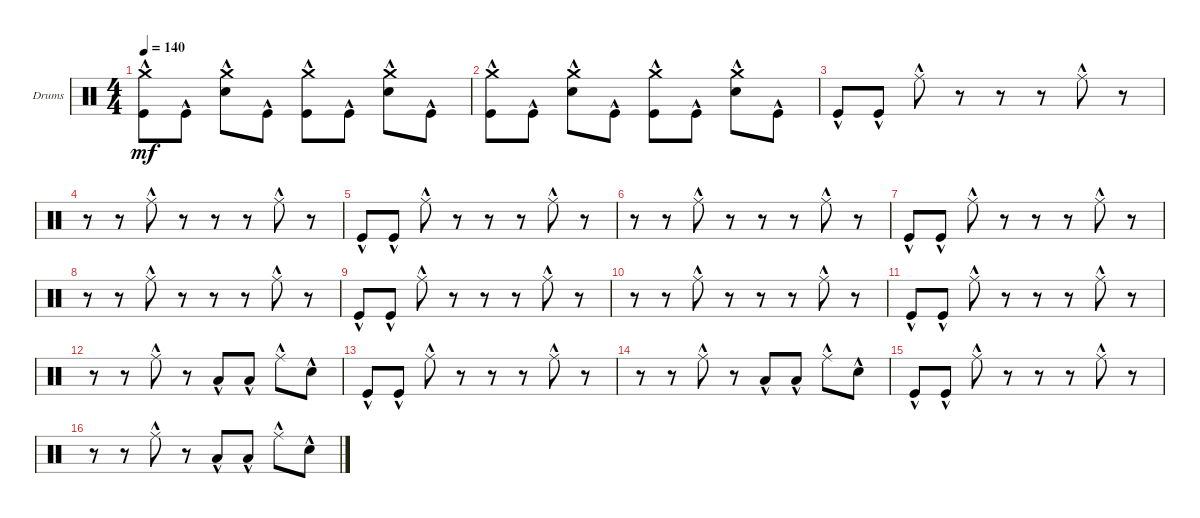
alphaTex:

\defaultSystemsLayout 4
\bracketExtendMode groupsimilarinstruments
\firstSystemTrackNameOrientation horizontal
\otherSystemsTrackNameOrientation horizontal
\track ("Drumkit" "Drums") {instrument percussion}
\staff {score}
\articulation defaults
\ts (4 4)
\tempo 140
\clef neutral
\ks c
("Kick (hit)"{hac} "Crash medium (hit)"{hac}).8{dy mf} "Kick (hit)"{hac}.8 ("Snare (hit) 2"{hac} "Crash medium (hit)"{hac}).8 "Kick (hit)"{hac}.8 ("Kick (hit)"{hac} "Crash medium (hit)"{hac}).8 "Kick (hit)"{hac}.8 ("Snare (hit) 2"{hac} "Crash medium (hit)"{hac}).8 "Kick (hit)"{hac}.8 |
("Kick (hit)"{hac} "Crash medium (hit)"{hac}).8 "Kick (hit)"{hac}.8 ("Snare (hit) 2"{hac} "Crash medium (hit)"{hac}).8 "Kick (hit)"{hac}.8 ("Kick (hit)"{hac} "Crash medium (hit)"{hac}).8 "Kick (hit)"{hac}.8 ("Snare (hit) 2"{hac} "Crash medium (hit)"{hac}).8 "Kick (hit)"{hac}.8 |
"Kick (hit)"{hac}.8 "Kick (hit)"{hac}.8 "Ride (middle)"{hac}.8 r.8 r.8 r.8 "Ride (middle)"{hac}.8 r.8 |
r.8 r.8 "Ride (middle)"{hac}.8 r.8 r.8 r.8 "Ride (middle)"{hac}.8 r.8 |
"Kick (hit)"{hac}.8 "Kick (hit)"{hac}.8 "Ride (middle)"{hac}.8 r.8 r.8 r.8 "Ride (middle)"{hac}.8 r.8 |
r.8 r.8 "Ride (middle)"{hac}.8 r.8 r.8 r.8 "Ride (middle)"{hac}.8 r.8 |
"Kick (hit)"{hac}.8 "Kick (hit)"{hac}.8 "Ride (middle)"{hac}.8 r.8 r.8 r.8 "Ride (middle)"{hac}.8 r.8 |
r.8 r.8 "Ride (middle)"{hac}.8 r.8 r.8 r.8 "Ride (middle)"{hac}.8 r.8 |
"Kick (hit)"{hac}.8 "Kick (hit)"{hac}.8 "Ride (middle)"{hac}.8 r.8 r.8 r.8 "Ride (middle)"{hac}.8 r.8 |
r.8 r.8 "Ride (middle)"{hac}.8 r.8 r.8 r.8 "Ride (middle)"{hac}.8 r.8 |
"Kick (hit)"{hac}.8 "Kick (hit)"{hac}.8 "Ride (middle)"{hac}.8 r.8 r.8 r.8 "Ride (middle)"{hac}.8 r.8 |
r.8 r.8 "Ride (middle)"{hac}.8 r.8 "Low Tom (hit)"{hac}.8 "Low Tom (hit)"{hac}.8 "Ride (middle)"{hac}.8 "Snare (hit) 2"{hac}.8 |
"Kick (hit)"{hac}.8 "Kick (hit)"{hac}.8 "Ride (middle)"{hac}.8 r.8 r.8 r.8 "Ride (middle)"{hac}.8 r.8 |
r.8 r.8 "Ride (middle)"{hac}.8 r.8 "Low Tom (hit)"{hac}.8 "Low Tom (hit)"{hac}.8 "Ride (middle)"{hac}.8 "Snare (hit) 2"{hac}.8 |
"Kick (hit)"{hac}.8 "Kick (hit)"{hac}.8 "Ride (middle)"{hac}.8 r.8 r.8 r.8 "Ride (middle)"{hac}.8 r.8 |
r.8 r.8 "Ride (middle)"{hac}.8 r.8 "Low Tom (hit)"{hac}.8 "Low Tom (hit)"{hac}.8 "Ride (middle)"{hac}.8 "Snare (hit) 2"{hac}.8
